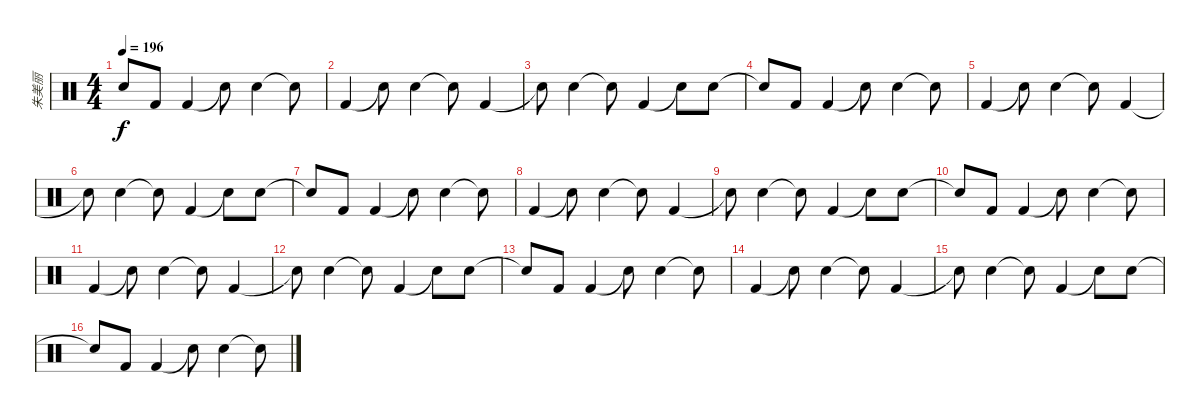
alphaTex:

\track ("朱美丽" "朱美丽") {instrument percussion}
\staff {score}
\articulation defaults
\ts (4 4)
\tempo 196
\clef neutral
\ks c "Snare (hit)"{t}.8{dy f} "Kick (hit) 2".8 "Kick (hit) 2".4 "Snare (hit)"{t}.8 "Electric Snare (hit)".4 "Snare (hit)"{t}.8
|
"Kick (hit) 2".4 "Snare (hit)"{t}.8 "Electric Snare (hit)".4 "Snare (hit)"{t}.8 "Kick (hit) 2".4 |
"Snare (hit)"{t}.8 "Electric Snare (hit)".4 "Snare (hit)"{t}.8 "Kick (hit) 2".4 "Snare (hit)"{t}.8 "Electric Snare (hit)".8 |
"Snare (hit)"{t}.8 "Kick (hit) 2".8 "Kick (hit) 2".4 "Snare (hit)"{t}.8 "Electric Snare (hit)".4 "Snare (hit)"{t}.8 |
"Kick (hit) 2".4 "Snare (hit)"{t}.8 "Electric Snare (hit)".4 "Snare (hit)"{t}.8 "Kick (hit) 2".4 |
"Snare (hit)"{t}.8 "Electric Snare (hit)".4 "Snare (hit)"{t}.8 "Kick (hit) 2".4 "Snare (hit)"{t}.8 "Electric Snare (hit)".8 |
"Snare (hit)"{t}.8 "Kick (hit) 2".8 "Kick (hit) 2".4 "Snare (hit)"{t}.8 "Electric Snare (hit)".4 "Snare (hit)"{t}.8 |
"Kick (hit) 2".4 "Snare (hit)"{t}.8 "Electric Snare (hit)".4 "Snare (hit)"{t}.8 "Kick (hit) 2".4 |
"Snare (hit)"{t}.8 "Electric Snare (hit)".4 "Snare (hit)"{t}.8 "Kick (hit) 2".4 "Snare (hit)"{t}.8 "Electric Snare (hit)".8 |
"Snare (hit)"{t}.8 "Kick (hit) 2".8 "Kick (hit) 2".4 "Snare (hit)"{t}.8 "Electric Snare (hit)".4 "Snare (hit)"{t}.8 |
"Kick (hit) 2".4 "Snare (hit)"{t}.8 "Electric Snare (hit)".4 "Snare (hit)"{t}.8 "Kick (hit) 2".4 |
"Snare (hit)"{t}.8 "Electric Snare (hit)".4 "Snare (hit)"{t}.8 "Kick (hit) 2".4 "Snare (hit)"{t}.8 "Electric Snare (hit)".8 |
"Snare (hit)"{t}.8 "Kick (hit) 2".8 "Kick (hit) 2".4 "Snare (hit)"{t}.8 "Electric Snare (hit)".4 "Snare (hit)"{t}.8 |
"Kick (hit) 2".4 "Snare (hit)"{t}.8 "Electric Snare (hit)".4 "Snare (hit)"{t}.8 "Kick (hit) 2".4 |
"Snare (hit)"{t}.8 "Electric Snare (hit)".4 "Snare (hit)"{t}.8 "Kick (hit) 2".4 "Snare (hit)"{t}.8 "Electric Snare (hit)".8 |
"Snare (hit)"{t}.8 "Kick (hit) 2".8 "Kick (hit) 2".4 "Snare (hit)"{t}.8 "Electric Snare (hit)".4 "Snare (hit)"{t}.8
